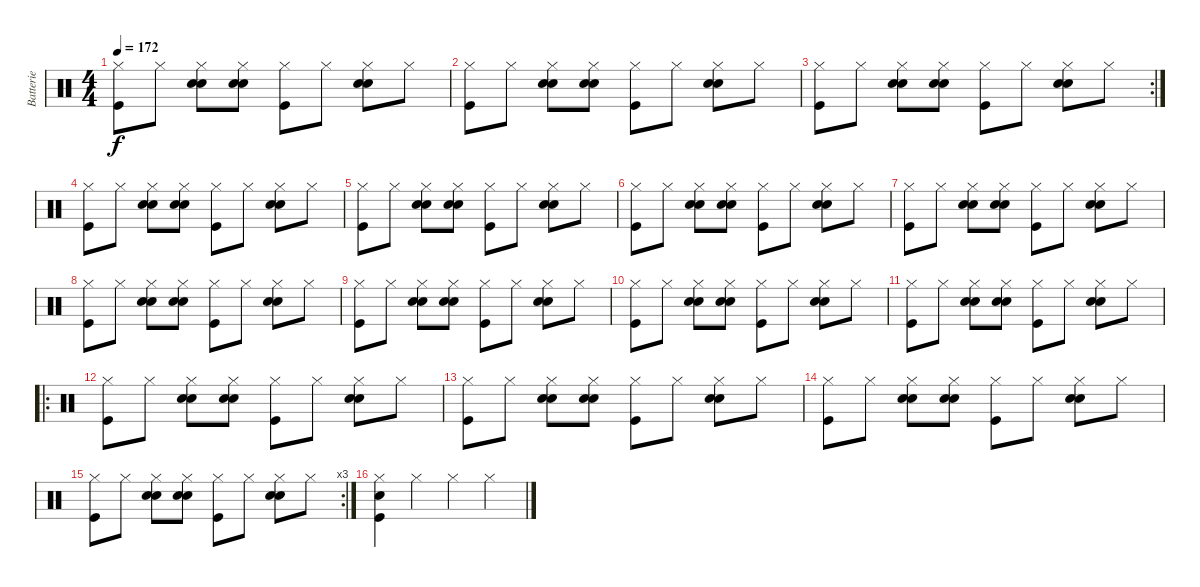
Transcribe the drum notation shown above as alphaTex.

\track ("Batterie" "Batterie") {instrument percussion}
\staff {score}
\articulation defaults
\ts (4 4)
\tempo 172
\clef neutral
\ks c
("Hi-Hat (closed)" "Kick (hit)").8{dy f} "Hi-Hat (closed)".8 ("Electric Snare (hit)" "Hi-Hat (closed)" "Snare (hit) 2").8 ("Electric Snare (hit)" "Hi-Hat (closed)" "Snare (hit) 2").8 ("Hi-Hat (closed)" "Kick (hit)").8 "Hi-Hat (closed)".8 ("Electric Snare (hit)" "Hi-Hat (closed)" "Snare (hit) 2").8 "Hi-Hat (closed)".8 |
("Hi-Hat (closed)" "Kick (hit)").8 "Hi-Hat (closed)".8 ("Electric Snare (hit)" "Hi-Hat (closed)" "Snare (hit) 2").8 ("Electric Snare (hit)" "Hi-Hat (closed)" "Snare (hit) 2").8 ("Hi-Hat (closed)" "Kick (hit)").8 "Hi-Hat (closed)".8 ("Electric Snare (hit)" "Hi-Hat (closed)" "Snare (hit) 2").8 "Hi-Hat (closed)".8 |
\rc 2
("Hi-Hat (closed)" "Kick (hit)").8 "Hi-Hat (closed)".8 ("Electric Snare (hit)" "Hi-Hat (closed)" "Snare (hit) 2").8 ("Electric Snare (hit)" "Hi-Hat (closed)" "Snare (hit) 2").8 ("Hi-Hat (closed)" "Kick (hit)").8 "Hi-Hat (closed)".8 ("Electric Snare (hit)" "Hi-Hat (closed)" "Snare (hit) 2").8 "Hi-Hat (closed)".8 |
("Hi-Hat (closed)" "Kick (hit)").8 "Hi-Hat (closed)".8 ("Electric Snare (hit)" "Hi-Hat (closed)" "Snare (hit) 2").8 ("Electric Snare (hit)" "Hi-Hat (closed)" "Snare (hit) 2").8 ("Hi-Hat (closed)" "Kick (hit)").8 "Hi-Hat (closed)".8 ("Electric Snare (hit)" "Hi-Hat (closed)" "Snare (hit) 2").8 "Hi-Hat (closed)".8 |
("Hi-Hat (closed)" "Kick (hit)").8 "Hi-Hat (closed)".8 ("Electric Snare (hit)" "Hi-Hat (closed)" "Snare (hit) 2").8 ("Electric Snare (hit)" "Hi-Hat (closed)" "Snare (hit) 2").8 ("Hi-Hat (closed)" "Kick (hit)").8 "Hi-Hat (closed)".8 ("Electric Snare (hit)" "Hi-Hat (closed)" "Snare (hit) 2").8 "Hi-Hat (closed)".8 |
("Hi-Hat (closed)" "Kick (hit)").8 "Hi-Hat (closed)".8 ("Electric Snare (hit)" "Hi-Hat (closed)" "Snare (hit) 2").8 ("Electric Snare (hit)" "Hi-Hat (closed)" "Snare (hit) 2").8 ("Hi-Hat (closed)" "Kick (hit)").8 "Hi-Hat (closed)".8 ("Electric Snare (hit)" "Hi-Hat (closed)" "Snare (hit) 2").8 "Hi-Hat (closed)".8 |
("Hi-Hat (closed)" "Kick (hit)").8 "Hi-Hat (closed)".8 ("Electric Snare (hit)" "Hi-Hat (closed)" "Snare (hit) 2").8 ("Electric Snare (hit)" "Hi-Hat (closed)" "Snare (hit) 2").8 ("Hi-Hat (closed)" "Kick (hit)").8 "Hi-Hat (closed)".8 ("Electric Snare (hit)" "Hi-Hat (closed)" "Snare (hit) 2").8 "Hi-Hat (closed)".8 |
("Hi-Hat (closed)" "Kick (hit)").8 "Hi-Hat (closed)".8 ("Electric Snare (hit)" "Hi-Hat (closed)" "Snare (hit) 2").8 ("Electric Snare (hit)" "Hi-Hat (closed)" "Snare (hit) 2").8 ("Hi-Hat (closed)" "Kick (hit)").8 "Hi-Hat (closed)".8 ("Electric Snare (hit)" "Hi-Hat (closed)" "Snare (hit) 2").8 "Hi-Hat (closed)".8 |
("Hi-Hat (closed)" "Kick (hit)").8 "Hi-Hat (closed)".8 ("Electric Snare (hit)" "Hi-Hat (closed)" "Snare (hit) 2").8 ("Electric Snare (hit)" "Hi-Hat (closed)" "Snare (hit) 2").8 ("Hi-Hat (closed)" "Kick (hit)").8 "Hi-Hat (closed)".8 ("Electric Snare (hit)" "Hi-Hat (closed)" "Snare (hit) 2").8 "Hi-Hat (closed)".8 |
("Hi-Hat (closed)" "Kick (hit)").8 "Hi-Hat (closed)".8 ("Electric Snare (hit)" "Hi-Hat (closed)" "Snare (hit) 2").8 ("Electric Snare (hit)" "Hi-Hat (closed)" "Snare (hit) 2").8 ("Hi-Hat (closed)" "Kick (hit)").8 "Hi-Hat (closed)".8 ("Electric Snare (hit)" "Hi-Hat (closed)" "Snare (hit) 2").8 "Hi-Hat (closed)".8 |
("Hi-Hat (closed)" "Kick (hit)").8 "Hi-Hat (closed)".8 ("Electric Snare (hit)" "Hi-Hat (closed)" "Snare (hit) 2").8 ("Electric Snare (hit)" "Hi-Hat (closed)" "Snare (hit) 2").8 ("Hi-Hat (closed)" "Kick (hit)").8 "Hi-Hat (closed)".8 ("Electric Snare (hit)" "Hi-Hat (closed)" "Snare (hit) 2").8 "Hi-Hat (closed)".8 |
\ro
("Hi-Hat (closed)" "Kick (hit)").8 "Hi-Hat (closed)".8 ("Electric Snare (hit)" "Hi-Hat (closed)" "Snare (hit) 2").8 ("Electric Snare (hit)" "Hi-Hat (closed)" "Snare (hit) 2").8 ("Hi-Hat (closed)" "Kick (hit)").8 "Hi-Hat (closed)".8 ("Electric Snare (hit)" "Hi-Hat (closed)" "Snare (hit) 2").8 "Hi-Hat (closed)".8 |
("Hi-Hat (closed)" "Kick (hit)").8 "Hi-Hat (closed)".8 ("Electric Snare (hit)" "Hi-Hat (closed)" "Snare (hit) 2").8 ("Electric Snare (hit)" "Hi-Hat (closed)" "Snare (hit) 2").8 ("Hi-Hat (closed)" "Kick (hit)").8 "Hi-Hat (closed)".8 ("Electric Snare (hit)" "Hi-Hat (closed)" "Snare (hit) 2").8 "Hi-Hat (closed)".8 |
("Hi-Hat (closed)" "Kick (hit)").8 "Hi-Hat (closed)".8 ("Electric Snare (hit)" "Hi-Hat (closed)" "Snare (hit) 2").8 ("Electric Snare (hit)" "Hi-Hat (closed)" "Snare (hit) 2").8 ("Hi-Hat (closed)" "Kick (hit)").8 "Hi-Hat (closed)".8 ("Electric Snare (hit)" "Hi-Hat (closed)" "Snare (hit) 2").8 "Hi-Hat (closed)".8 |
\rc 3
("Hi-Hat (closed)" "Kick (hit)").8 "Hi-Hat (closed)".8 ("Electric Snare (hit)" "Hi-Hat (closed)" "Snare (hit) 2").8 ("Electric Snare (hit)" "Hi-Hat (closed)" "Snare (hit) 2").8 ("Hi-Hat (closed)" "Kick (hit)").8 "Hi-Hat (closed)".8 ("Electric Snare (hit)" "Hi-Hat (closed)" "Snare (hit) 2").8 "Hi-Hat (closed)".8 |
("Hi-Hat (closed)" "Snare (hit) 2" "Kick (hit)").4 "Hi-Hat (closed)".4 "Hi-Hat (closed)".4 "Hi-Hat (closed)".4
